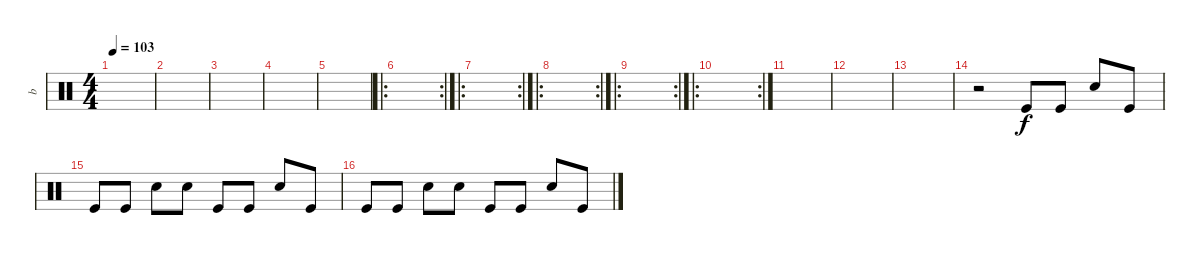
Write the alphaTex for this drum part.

\track ("b" "b") {instrument percussion}
\staff {score}
\articulation defaults
\ts (4 4)
\tempo 103
\clef neutral
\ks c
|
|
|
|
|
\ro
\rc 2
|
\ro
\rc 2
|
\ro
\rc 2
|
\ro
\rc 2
|
\ro
\rc 2
|
|
|
|
r.2 "Kick (hit)".8 "Kick (hit)".8 "Electric Snare (hit)".8 "Kick (hit)".8 |
"Kick (hit)".8 "Kick (hit)".8 "Electric Snare (hit)".8 "Electric Snare (hit)".8 "Kick (hit)".8 "Kick (hit)".8 "Electric Snare (hit)".8 "Kick (hit)".8 |
"Kick (hit)".8 "Kick (hit)".8 "Electric Snare (hit)".8 "Electric Snare (hit)".8 "Kick (hit)".8 "Kick (hit)".8 "Electric Snare (hit)".8 "Kick (hit)".8
